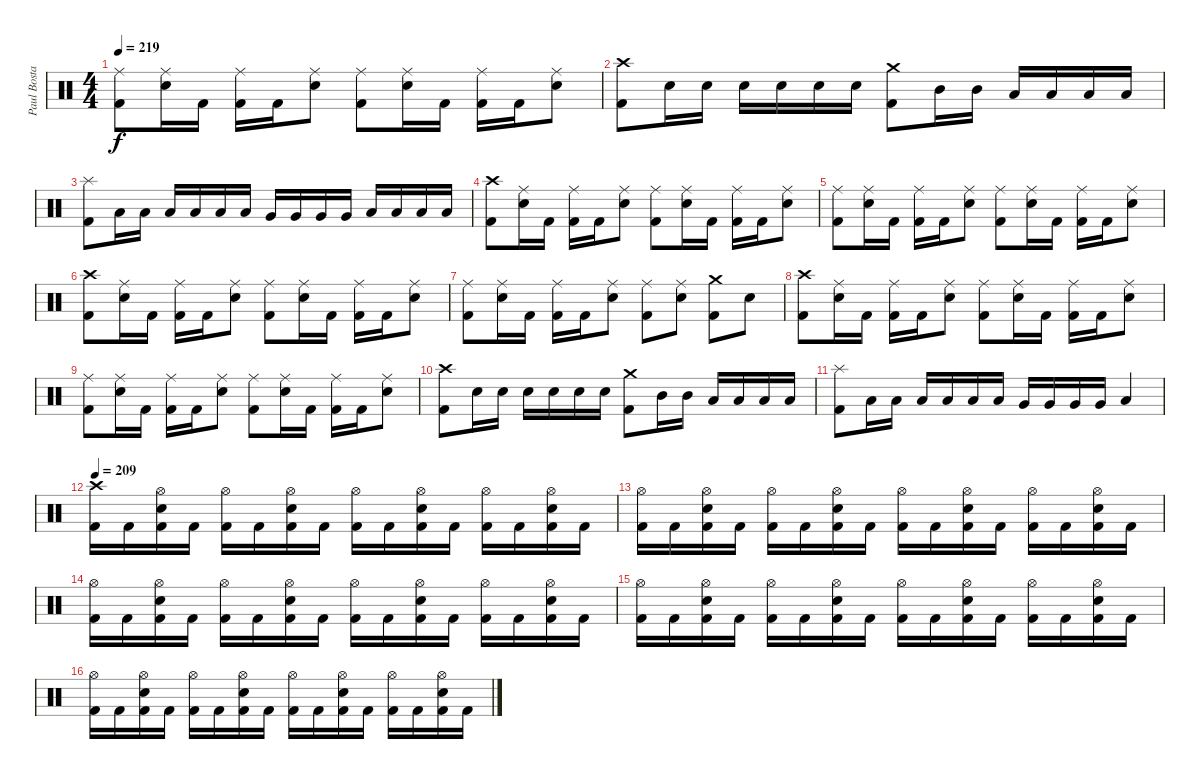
\track ("Paul Bostaph" "Paul Bosta") {instrument percussion}
\staff {score}
\articulation defaults
\ts (4 4)
\tempo 219
\clef neutral
\ks c
("Ride (middle)" "Kick (hit) 2").8{dy f} ("Ride (middle)" "Electric Snare (hit)").16 "Kick (hit) 2".16 ("Ride (middle)" "Kick (hit) 2").16 "Kick (hit) 2".16 ("Ride (middle)" "Electric Snare (hit)").8 ("Ride (middle)" "Kick (hit) 2").8 ("Ride (middle)" "Electric Snare (hit)").16 "Kick (hit) 2".16 ("Ride (middle)" "Kick (hit) 2").16 "Kick (hit) 2".16 ("Ride (middle)" "Electric Snare (hit)").8 |
("Crash high (hit)" "Kick (hit) 2").8 "Electric Snare (hit)".16 "Electric Snare (hit)".16 "Electric Snare (hit)".16 "Electric Snare (hit)".16 "Electric Snare (hit)".16 "Electric Snare (hit)".16 ("Crash medium (hit)" "Kick (hit) 2").8 "Mid Tom (hit)".16 "Mid Tom (hit)".16 "Low Tom (hit)".16 "Low Tom (hit)".16 "Low Tom (hit)".16 "Low Tom (hit)".16 |
("Splash (hit)" "Kick (hit) 2").8 "Low Tom (hit)".16 "Low Tom (hit)".16 "Low Tom (hit)".16 "Low Tom (hit)".16 "Low Tom (hit)".16 "Low Tom (hit)".16 "Very Low Tom (hit)".16 "Very Low Tom (hit)".16 "Very Low Tom (hit)".16 "Very Low Tom (hit)".16 "Low Floor Tom (hit)".16 "Low Floor Tom (hit)".16 "Low Floor Tom (hit)".16 "Low Floor Tom (hit)".16 |
("Crash high (hit)" "Kick (hit) 2").8 ("Ride (middle)" "Electric Snare (hit)").16 "Kick (hit) 2".16 ("Ride (middle)" "Kick (hit) 2").16 "Kick (hit) 2".16 ("Ride (middle)" "Electric Snare (hit)").8 ("Ride (middle)" "Kick (hit) 2").8 ("Ride (middle)" "Electric Snare (hit)").16 "Kick (hit) 2".16 ("Ride (middle)" "Kick (hit) 2").16 "Kick (hit) 2".16 ("Ride (middle)" "Electric Snare (hit)").8 |
("Ride (middle)" "Kick (hit) 2").8 ("Ride (middle)" "Electric Snare (hit)").16 "Kick (hit) 2".16 ("Ride (middle)" "Kick (hit) 2").16 "Kick (hit) 2".16 ("Ride (middle)" "Electric Snare (hit)").8 ("Ride (middle)" "Kick (hit) 2").8 ("Ride (middle)" "Electric Snare (hit)").16 "Kick (hit) 2".16 ("Ride (middle)" "Kick (hit) 2").16 "Kick (hit) 2".16 ("Ride (middle)" "Electric Snare (hit)").8 |
("Crash high (hit)" "Kick (hit) 2").8 ("Ride (middle)" "Electric Snare (hit)").16 "Kick (hit) 2".16 ("Ride (middle)" "Kick (hit) 2").16 "Kick (hit) 2".16 ("Ride (middle)" "Electric Snare (hit)").8 ("Ride (middle)" "Kick (hit) 2").8 ("Ride (middle)" "Electric Snare (hit)").16 "Kick (hit) 2".16 ("Ride (middle)" "Kick (hit) 2").16 "Kick (hit) 2".16 ("Ride (middle)" "Electric Snare (hit)").8 |
("Ride (middle)" "Kick (hit) 2").8 ("Ride (middle)" "Electric Snare (hit)").16 "Kick (hit) 2".16 ("Ride (middle)" "Kick (hit) 2").16 "Kick (hit) 2".16 ("Ride (middle)" "Electric Snare (hit)").8 ("Ride (middle)" "Kick (hit) 2").8 ("Ride (middle)" "Electric Snare (hit)").8 ("Crash medium (hit)" "Kick (hit) 2").8 "Electric Snare (hit)".8 |
("Crash high (hit)" "Kick (hit) 2").8 ("Ride (middle)" "Electric Snare (hit)").16 "Kick (hit) 2".16 ("Ride (middle)" "Kick (hit) 2").16 "Kick (hit) 2".16 ("Ride (middle)" "Electric Snare (hit)").8 ("Ride (middle)" "Kick (hit) 2").8 ("Ride (middle)" "Electric Snare (hit)").16 "Kick (hit) 2".16 ("Ride (middle)" "Kick (hit) 2").16 "Kick (hit) 2".16 ("Ride (middle)" "Electric Snare (hit)").8 |
("Ride (middle)" "Kick (hit) 2").8 ("Ride (middle)" "Electric Snare (hit)").16 "Kick (hit) 2".16 ("Ride (middle)" "Kick (hit) 2").16 "Kick (hit) 2".16 ("Ride (middle)" "Electric Snare (hit)").8 ("Ride (middle)" "Kick (hit) 2").8 ("Ride (middle)" "Electric Snare (hit)").16 "Kick (hit) 2".16 ("Ride (middle)" "Kick (hit) 2").16 "Kick (hit) 2".16 ("Ride (middle)" "Electric Snare (hit)").8 |
("Crash high (hit)" "Kick (hit) 2").8 "Electric Snare (hit)".16 "Electric Snare (hit)".16 "Electric Snare (hit)".16 "Electric Snare (hit)".16 "Electric Snare (hit)".16 "Electric Snare (hit)".16 ("Crash medium (hit)" "Kick (hit) 2").8 "Mid Tom (hit)".16 "Mid Tom (hit)".16 "Low Tom (hit)".16 "Low Tom (hit)".16 "Low Tom (hit)".16 "Low Tom (hit)".16 |
("Splash (hit)" "Kick (hit) 2").8 "Low Tom (hit)".16 "Low Tom (hit)".16 "Low Tom (hit)".16 "Low Tom (hit)".16 "Low Tom (hit)".16 "Low Tom (hit)".16 "Very Low Tom (hit)".16 "Very Low Tom (hit)".16 "Very Low Tom (hit)".16 "Very Low Tom (hit)".16 "Low Floor Tom (hit)".4 |
\tempo 209
("Crash high (hit)" "Kick (hit) 2").16 "Kick (hit) 2".16 ("Electric Snare (hit)" "Hi-Hat (open)" "Kick (hit) 2").16 "Kick (hit) 2".16 ("Hi-Hat (open)" "Kick (hit) 2").16 "Kick (hit) 2".16 ("Electric Snare (hit)" "Hi-Hat (open)" "Kick (hit) 2").16 "Kick (hit) 2".16 ("Hi-Hat (open)" "Kick (hit) 2").16 "Kick (hit) 2".16 ("Electric Snare (hit)" "Hi-Hat (open)" "Kick (hit) 2").16 "Kick (hit) 2".16 ("Hi-Hat (open)" "Kick (hit) 2").16 "Kick (hit) 2".16 ("Electric Snare (hit)" "Hi-Hat (open)" "Kick (hit) 2").16 "Kick (hit) 2".16 |
("Hi-Hat (open)" "Kick (hit) 2").16 "Kick (hit) 2".16 ("Electric Snare (hit)" "Hi-Hat (open)" "Kick (hit) 2").16 "Kick (hit) 2".16 ("Hi-Hat (open)" "Kick (hit) 2").16 "Kick (hit) 2".16 ("Electric Snare (hit)" "Hi-Hat (open)" "Kick (hit) 2").16 "Kick (hit) 2".16 ("Hi-Hat (open)" "Kick (hit) 2").16 "Kick (hit) 2".16 ("Electric Snare (hit)" "Hi-Hat (open)" "Kick (hit) 2").16 "Kick (hit) 2".16 ("Hi-Hat (open)" "Kick (hit) 2").16 "Kick (hit) 2".16 ("Electric Snare (hit)" "Hi-Hat (open)" "Kick (hit) 2").16 "Kick (hit) 2".16 |
("Hi-Hat (open)" "Kick (hit) 2").16 "Kick (hit) 2".16 ("Electric Snare (hit)" "Hi-Hat (open)" "Kick (hit) 2").16 "Kick (hit) 2".16 ("Hi-Hat (open)" "Kick (hit) 2").16 "Kick (hit) 2".16 ("Electric Snare (hit)" "Hi-Hat (open)" "Kick (hit) 2").16 "Kick (hit) 2".16 ("Hi-Hat (open)" "Kick (hit) 2").16 "Kick (hit) 2".16 ("Electric Snare (hit)" "Hi-Hat (open)" "Kick (hit) 2").16 "Kick (hit) 2".16 ("Hi-Hat (open)" "Kick (hit) 2").16 "Kick (hit) 2".16 ("Electric Snare (hit)" "Hi-Hat (open)" "Kick (hit) 2").16 "Kick (hit) 2".16 |
("Hi-Hat (open)" "Kick (hit) 2").16 "Kick (hit) 2".16 ("Electric Snare (hit)" "Hi-Hat (open)" "Kick (hit) 2").16 "Kick (hit) 2".16 ("Hi-Hat (open)" "Kick (hit) 2").16 "Kick (hit) 2".16 ("Electric Snare (hit)" "Hi-Hat (open)" "Kick (hit) 2").16 "Kick (hit) 2".16 ("Hi-Hat (open)" "Kick (hit) 2").16 "Kick (hit) 2".16 ("Electric Snare (hit)" "Hi-Hat (open)" "Kick (hit) 2").16 "Kick (hit) 2".16 ("Hi-Hat (open)" "Kick (hit) 2").16 "Kick (hit) 2".16 ("Electric Snare (hit)" "Hi-Hat (open)" "Kick (hit) 2").16 "Kick (hit) 2".16 |
("Hi-Hat (open)" "Kick (hit) 2").16 "Kick (hit) 2".16 ("Electric Snare (hit)" "Hi-Hat (open)" "Kick (hit) 2").16 "Kick (hit) 2".16 ("Hi-Hat (open)" "Kick (hit) 2").16 "Kick (hit) 2".16 ("Electric Snare (hit)" "Hi-Hat (open)" "Kick (hit) 2").16 "Kick (hit) 2".16 ("Hi-Hat (open)" "Kick (hit) 2").16 "Kick (hit) 2".16 ("Electric Snare (hit)" "Hi-Hat (open)" "Kick (hit) 2").16 "Kick (hit) 2".16 ("Hi-Hat (open)" "Kick (hit) 2").16 "Kick (hit) 2".16 ("Electric Snare (hit)" "Hi-Hat (open)" "Kick (hit) 2").16 "Kick (hit) 2".16
